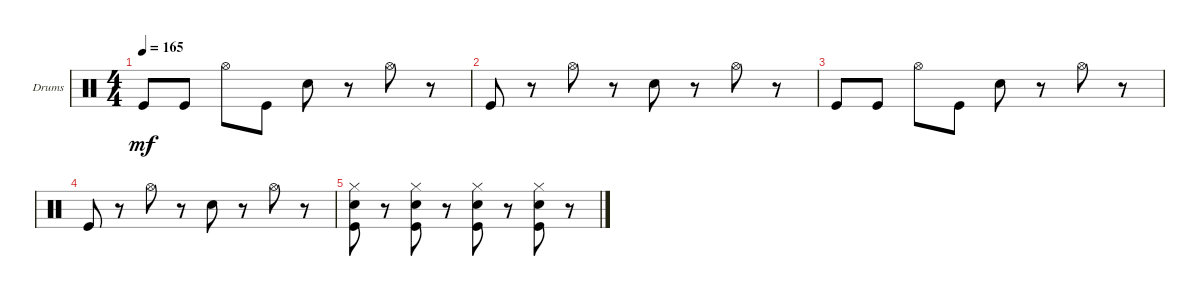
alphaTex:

\defaultSystemsLayout 4
\bracketExtendMode groupsimilarinstruments
\firstSystemTrackNameOrientation horizontal
\otherSystemsTrackNameOrientation horizontal
\track ("Drumkit" "Drums") {instrument percussion}
\staff {score}
\articulation defaults
\ts (4 4)
\tempo 165
\clef neutral
\ks c "Kick (hit)".8{dy mf} "Kick (hit)".8 "Hi-Hat (open)".8 "Kick (hit)".8 "Snare (hit) 2".8
r.8 "Hi-Hat (open)".8 r.8 |
"Kick (hit)".8 r.8 "Hi-Hat (open)".8 r.8 "Snare (hit) 2".8 r.8 "Hi-Hat (open)".8 r.8 |
"Kick (hit)".8 "Kick (hit)".8 "Hi-Hat (open)".8 "Kick (hit)".8 "Snare (hit) 2".8 r.8 "Hi-Hat (open)".8 r.8 |
"Kick (hit)".8 r.8 "Hi-Hat (open)".8 r.8 "Snare (hit) 2".8 r.8 "Hi-Hat (open)".8 r.8 |
("Kick (hit)" "Snare (hit) 2" "Hi-Hat (closed)").8 r.8 ("Snare (hit) 2" "Kick (hit)" "Hi-Hat (closed)").8 r.8 ("Snare (hit) 2" "Kick (hit)" "Hi-Hat (closed)").8 r.8 ("Snare (hit) 2" "Kick (hit)" "Hi-Hat (closed)").8 r.8
